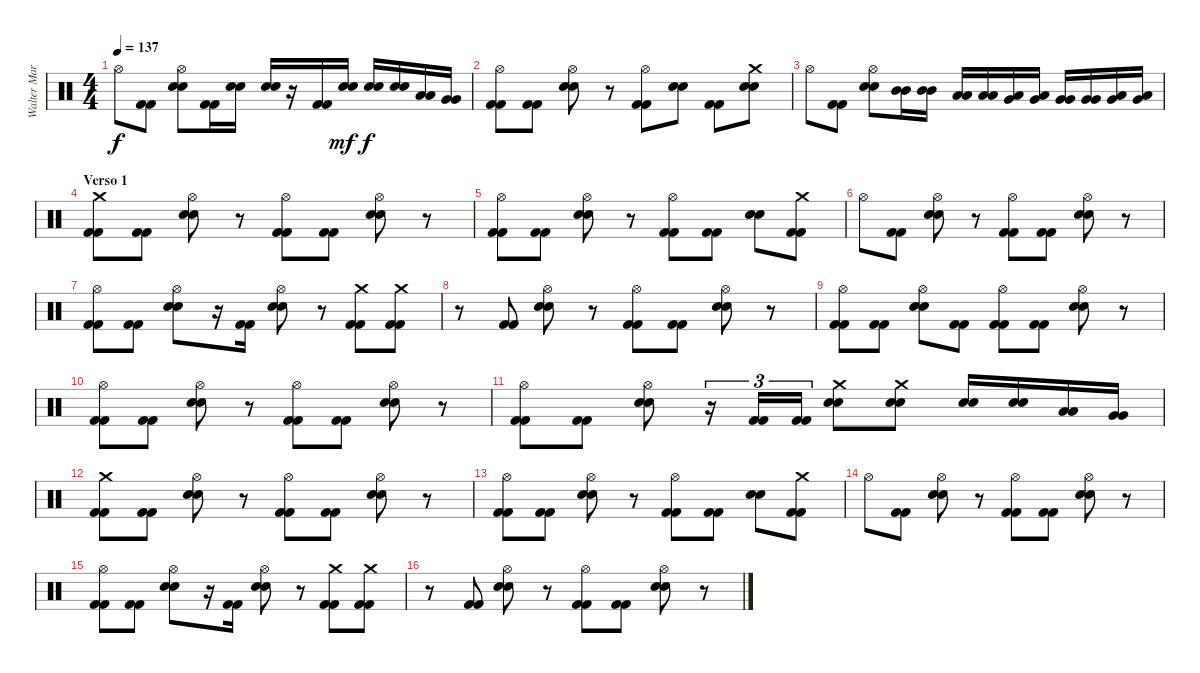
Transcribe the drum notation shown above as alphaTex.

\track ("Walter Martinez (bateria)" "Walter Mar") {instrument percussion}
\staff {score}
\articulation defaults
\ts (4 4)
\tempo 137
\clef neutral
\ks c "Hi-Hat (open)".8{dy f}
("Kick (hit) 2" "Kick (hit) 2").8 ("Hi-Hat (open)" "Snare (hit) 2" "Snare (hit) 2").8 ("Kick (hit) 2" "Kick (hit) 2").16 ("Snare (hit) 2" "Snare (hit) 2").16 ("Snare (hit) 2" "Snare (hit) 2").16 r.16 ("Kick (hit) 2" "Kick (hit) 2").16 ("Snare (hit) 2" "Snare (hit) 2").16{dy mf} ("Snare (hit) 2" "Snare (hit) 2").16{dy f} ("Snare (hit) 2" "Snare (hit) 2").16 ("Low Tom (hit)" "Low Tom (hit)").16 ("Very Low Tom (hit)" "Very Low Tom (hit)").16 |
("Hi-Hat (open)" "Kick (hit) 2" "Kick (hit) 2").8 ("Kick (hit) 2" "Kick (hit) 2").8 ("Hi-Hat (open)" "Snare (hit) 2" "Snare (hit) 2").8 r.8 ("Hi-Hat (open)" "Kick (hit) 2" "Kick (hit) 2").8 ("Snare (hit) 2" "Snare (hit) 2").8 ("Kick (hit) 2" "Kick (hit) 2").8 ("Crash medium (hit)" "Snare (hit) 2" "Snare (hit) 2").8 |
"Hi-Hat (open)".8 ("Kick (hit) 2" "Kick (hit) 2").8 ("Hi-Hat (open)" "Snare (hit) 2" "Snare (hit) 2").8 ("Mid Tom (hit)" "Mid Tom (hit)").16 ("Mid Tom (hit)" "Mid Tom (hit)").16 ("Low Tom (hit)" "Low Tom (hit)").16 ("Low Tom (hit)" "Low Tom (hit)").16 ("Low Tom (hit)" "Very Low Tom (hit)").16 ("Low Tom (hit)" "Very Low Tom (hit)").16 ("Very Low Tom (hit)" "Very Low Tom (hit)").16 ("Very Low Tom (hit)" "Very Low Tom (hit)").16 ("Low Floor Tom (hit)" "Very Low Tom (hit)").16 ("Low Floor Tom (hit)" "Very Low Tom (hit)").16 |
\section ("" "Verso 1")
("Crash medium (hit)" "Kick (hit) 2" "Kick (hit) 2").8 ("Kick (hit) 2" "Kick (hit) 2").8 ("Hi-Hat (open)" "Snare (hit) 2" "Snare (hit) 2").8 r.8 ("Hi-Hat (open)" "Kick (hit) 2" "Kick (hit) 2").8 ("Kick (hit) 2" "Kick (hit) 2").8 ("Hi-Hat (open)" "Snare (hit) 2" "Snare (hit) 2").8 r.8 |
("Hi-Hat (open)" "Kick (hit) 2" "Kick (hit) 2").8 ("Kick (hit) 2" "Kick (hit) 2").8 ("Hi-Hat (open)" "Snare (hit) 2" "Snare (hit) 2").8 r.8 ("Hi-Hat (open)" "Kick (hit) 2" "Kick (hit) 2").8 ("Kick (hit) 2" "Kick (hit) 2").8 ("Snare (hit) 2" "Snare (hit) 2").8 ("Crash medium (hit)" "Kick (hit) 2" "Kick (hit) 2").8 |
"Hi-Hat (open)".8 ("Kick (hit) 2" "Kick (hit) 2").8 ("Hi-Hat (open)" "Snare (hit) 2" "Snare (hit) 2").8 r.8 ("Hi-Hat (open)" "Kick (hit) 2" "Kick (hit) 2").8 ("Kick (hit) 2" "Kick (hit) 2").8 ("Hi-Hat (open)" "Snare (hit) 2" "Snare (hit) 2").8 r.8 |
("Hi-Hat (open)" "Kick (hit) 2" "Kick (hit) 2").8 ("Kick (hit) 2" "Kick (hit) 2").8 ("Hi-Hat (open)" "Snare (hit) 2" "Snare (hit) 2").8 r.16 ("Kick (hit) 2" "Kick (hit) 2").16 ("Hi-Hat (open)" "Snare (hit) 2" "Snare (hit) 2").8 r.8 ("Crash medium (hit)" "Kick (hit) 2" "Kick (hit) 2").8 ("Crash medium (hit)" "Kick (hit) 2" "Kick (hit) 2").8 |
r.8 ("Kick (hit) 2" "Kick (hit) 2").8 ("Hi-Hat (open)" "Snare (hit) 2" "Snare (hit) 2").8 r.8 ("Hi-Hat (open)" "Kick (hit) 2" "Kick (hit) 2").8 ("Kick (hit) 2" "Kick (hit) 2").8 ("Hi-Hat (open)" "Snare (hit) 2" "Snare (hit) 2").8 r.8 |
("Hi-Hat (open)" "Kick (hit) 2" "Kick (hit) 2").8 ("Kick (hit) 2" "Kick (hit) 2").8 ("Hi-Hat (open)" "Snare (hit) 2" "Snare (hit) 2").8 ("Kick (hit) 2" "Kick (hit) 2").8 ("Hi-Hat (open)" "Kick (hit) 2" "Kick (hit) 2").8 ("Kick (hit) 2" "Kick (hit) 2").8 ("Hi-Hat (open)" "Snare (hit) 2" "Snare (hit) 2").8 r.8 |
("Hi-Hat (open)" "Kick (hit) 2" "Kick (hit) 2").8 ("Kick (hit) 2" "Kick (hit) 2").8 ("Hi-Hat (open)" "Snare (hit) 2" "Snare (hit) 2").8 r.8 ("Hi-Hat (open)" "Kick (hit) 2" "Kick (hit) 2").8 ("Kick (hit) 2" "Kick (hit) 2").8 ("Hi-Hat (open)" "Snare (hit) 2" "Snare (hit) 2").8 r.8 |
("Hi-Hat (open)" "Kick (hit) 2" "Kick (hit) 2").8 ("Kick (hit) 2" "Kick (hit) 2").8 ("Hi-Hat (open)" "Snare (hit) 2" "Snare (hit) 2").8 r.16{tu (3 2)} ("Kick (hit) 2" "Kick (hit) 2").16{tu (3 2)} ("Kick (hit) 2" "Kick (hit) 2").16{tu (3 2)} ("Crash medium (hit)" "Snare (hit) 2" "Snare (hit) 2").8 ("Crash medium (hit)" "Snare (hit) 2" "Snare (hit) 2").8 ("Snare (hit) 2" "Snare (hit) 2").16 ("Snare (hit) 2" "Snare (hit) 2").16 ("Low Tom (hit)" "Low Tom (hit)").16 ("Very Low Tom (hit)" "Very Low Tom (hit)").16 |
("Crash medium (hit)" "Kick (hit) 2" "Kick (hit) 2").8 ("Kick (hit) 2" "Kick (hit) 2").8 ("Hi-Hat (open)" "Snare (hit) 2" "Snare (hit) 2").8 r.8 ("Hi-Hat (open)" "Kick (hit) 2" "Kick (hit) 2").8 ("Kick (hit) 2" "Kick (hit) 2").8 ("Hi-Hat (open)" "Snare (hit) 2" "Snare (hit) 2").8 r.8 |
("Hi-Hat (open)" "Kick (hit) 2" "Kick (hit) 2").8 ("Kick (hit) 2" "Kick (hit) 2").8 ("Hi-Hat (open)" "Snare (hit) 2" "Snare (hit) 2").8 r.8 ("Hi-Hat (open)" "Kick (hit) 2" "Kick (hit) 2").8 ("Kick (hit) 2" "Kick (hit) 2").8 ("Snare (hit) 2" "Snare (hit) 2").8 ("Crash medium (hit)" "Kick (hit) 2" "Kick (hit) 2").8 |
"Hi-Hat (open)".8 ("Kick (hit) 2" "Kick (hit) 2").8 ("Hi-Hat (open)" "Snare (hit) 2" "Snare (hit) 2").8 r.8 ("Hi-Hat (open)" "Kick (hit) 2" "Kick (hit) 2").8 ("Kick (hit) 2" "Kick (hit) 2").8 ("Hi-Hat (open)" "Snare (hit) 2" "Snare (hit) 2").8 r.8 |
("Hi-Hat (open)" "Kick (hit) 2" "Kick (hit) 2").8 ("Kick (hit) 2" "Kick (hit) 2").8 ("Hi-Hat (open)" "Snare (hit) 2" "Snare (hit) 2").8 r.16 ("Kick (hit) 2" "Kick (hit) 2").16 ("Hi-Hat (open)" "Snare (hit) 2" "Snare (hit) 2").8 r.8 ("Crash medium (hit)" "Kick (hit) 2" "Kick (hit) 2").8 ("Crash medium (hit)" "Kick (hit) 2" "Kick (hit) 2").8 |
r.8 ("Kick (hit) 2" "Kick (hit) 2").8 ("Hi-Hat (open)" "Snare (hit) 2" "Snare (hit) 2").8 r.8 ("Hi-Hat (open)" "Kick (hit) 2" "Kick (hit) 2").8 ("Kick (hit) 2" "Kick (hit) 2").8 ("Hi-Hat (open)" "Snare (hit) 2" "Snare (hit) 2").8 r.8
